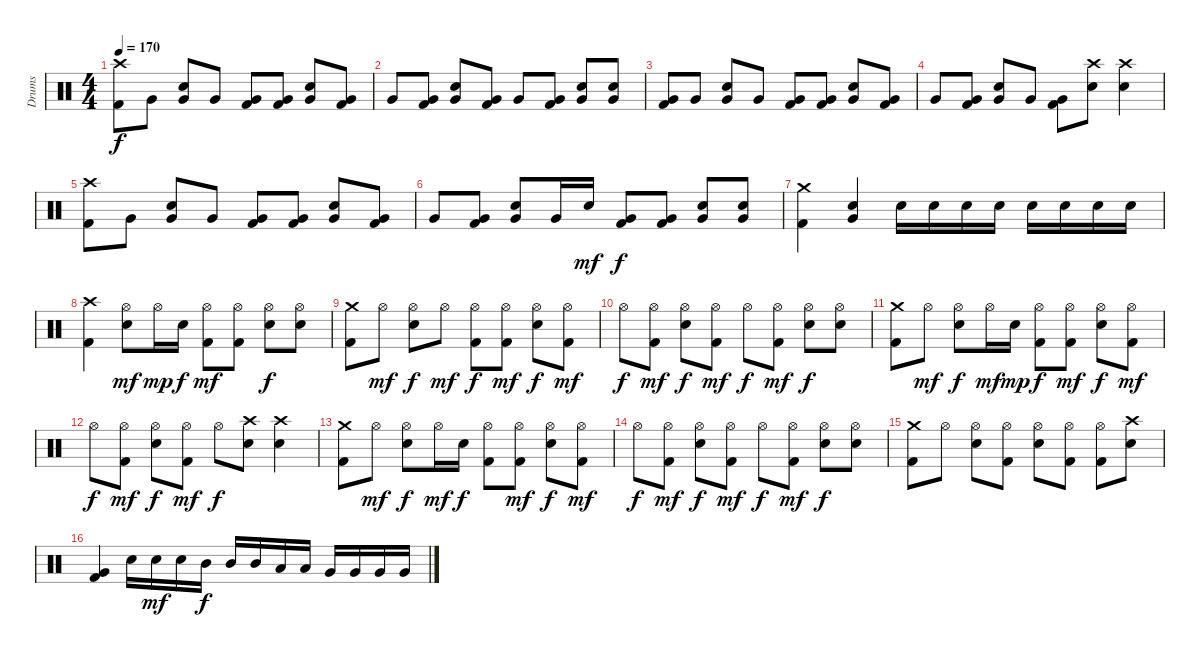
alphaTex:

\track ("Drums" "Drums") {instrument percussion}
\staff {score}
\articulation defaults
\ts (4 4)
\tempo 170
\clef neutral
\ks c
("Crash high (hit)" "Kick (hit) 2").8{dy f} "Very Low Tom (hit)".8 ("Very Low Tom (hit)" "Electric Snare (hit)").8 "Very Low Tom (hit)".8 ("Very Low Tom (hit)" "Kick (hit) 2").8 ("Very Low Tom (hit)" "Kick (hit) 2").8 ("Very Low Tom (hit)" "Electric Snare (hit)").8 ("Very Low Tom (hit)" "Kick (hit) 2").8 |
"Very Low Tom (hit)".8 ("Very Low Tom (hit)" "Kick (hit) 2").8 ("Very Low Tom (hit)" "Electric Snare (hit)").8 ("Very Low Tom (hit)" "Kick (hit) 2").8 "Very Low Tom (hit)".8 ("Very Low Tom (hit)" "Kick (hit) 2").8 ("Very Low Tom (hit)" "Electric Snare (hit)").8 ("Very Low Tom (hit)" "Electric Snare (hit)").8 |
("Very Low Tom (hit)" "Kick (hit) 2").8 "Very Low Tom (hit)".8 ("Very Low Tom (hit)" "Electric Snare (hit)").8 "Very Low Tom (hit)".8 ("Very Low Tom (hit)" "Kick (hit) 2").8 ("Very Low Tom (hit)" "Kick (hit) 2").8 ("Very Low Tom (hit)" "Electric Snare (hit)").8 ("Very Low Tom (hit)" "Kick (hit) 2").8 |
"Very Low Tom (hit)".8 ("Very Low Tom (hit)" "Kick (hit) 2").8 ("Very Low Tom (hit)" "Electric Snare (hit)").8 "Very Low Tom (hit)".8 ("Very Low Tom (hit)" "Kick (hit) 2").8 ("Crash high (hit)" "Electric Snare (hit)").8 ("Crash high (hit)" "Electric Snare (hit)").4 |
("Crash high (hit)" "Kick (hit) 2").8 "Very Low Tom (hit)".8 ("Very Low Tom (hit)" "Electric Snare (hit)").8 "Very Low Tom (hit)".8 ("Very Low Tom (hit)" "Kick (hit) 2").8 ("Very Low Tom (hit)" "Kick (hit) 2").8 ("Very Low Tom (hit)" "Electric Snare (hit)").8 ("Very Low Tom (hit)" "Kick (hit) 2").8 |
"Very Low Tom (hit)".8 ("Very Low Tom (hit)" "Kick (hit) 2").8 ("Very Low Tom (hit)" "Electric Snare (hit)").8 "Very Low Tom (hit)".16 "Electric Snare (hit)".16{dy mf} ("Very Low Tom (hit)" "Kick (hit) 2").8{dy f} ("Very Low Tom (hit)" "Kick (hit) 2").8 ("Very Low Tom (hit)" "Electric Snare (hit)").8 ("Very Low Tom (hit)" "Electric Snare (hit)").8 |
("Crash medium (hit)" "Kick (hit) 2").4 ("Very Low Tom (hit)" "Electric Snare (hit)").4 "Electric Snare (hit)".16 "Electric Snare (hit)".16 "Electric Snare (hit)".16 "Electric Snare (hit)".16 "Electric Snare (hit)".16 "Electric Snare (hit)".16 "Electric Snare (hit)".16 "Electric Snare (hit)".16 |
("Crash high (hit)" "Kick (hit) 2").4 ("Hi-Hat (open)" "Electric Snare (hit)").8{dy mf} "Hi-Hat (open)".16{dy mp} "Electric Snare (hit)".16{dy f} ("Hi-Hat (open)" "Kick (hit) 2").8{dy mf} ("Hi-Hat (open)" "Kick (hit) 2").8 ("Hi-Hat (open)" "Electric Snare (hit)").8{dy f} ("Hi-Hat (open)" "Electric Snare (hit)").8 |
("Crash medium (hit)" "Kick (hit) 2").8 "Hi-Hat (open)".8{dy mf} ("Hi-Hat (open)" "Electric Snare (hit)").8{dy f} "Hi-Hat (open)".8{dy mf} ("Hi-Hat (open)" "Kick (hit) 2").8{dy f} ("Hi-Hat (open)" "Kick (hit) 2").8{dy mf} ("Hi-Hat (open)" "Electric Snare (hit)").8{dy f} ("Hi-Hat (open)" "Kick (hit) 2").8{dy mf} |
"Hi-Hat (open)".8{dy f} ("Hi-Hat (open)" "Kick (hit) 2").8{dy mf} ("Hi-Hat (open)" "Electric Snare (hit)").8{dy f} ("Hi-Hat (open)" "Kick (hit) 2").8{dy mf} "Hi-Hat (open)".8{dy f} ("Hi-Hat (open)" "Kick (hit) 2").8{dy mf} ("Hi-Hat (open)" "Electric Snare (hit)").8{dy f} ("Hi-Hat (open)" "Electric Snare (hit)").8 |
("Crash medium (hit)" "Kick (hit) 2").8 "Hi-Hat (open)".8{dy mf} ("Hi-Hat (open)" "Electric Snare (hit)").8{dy f} "Hi-Hat (open)".16{dy mf} "Electric Snare (hit)".16{dy mp} ("Hi-Hat (open)" "Kick (hit) 2").8{dy f} ("Hi-Hat (open)" "Kick (hit) 2").8{dy mf} ("Hi-Hat (open)" "Electric Snare (hit)").8{dy f} ("Hi-Hat (open)" "Kick (hit) 2").8{dy mf} |
"Hi-Hat (open)".8{dy f} ("Hi-Hat (open)" "Kick (hit) 2").8{dy mf} ("Hi-Hat (open)" "Electric Snare (hit)").8{dy f} ("Hi-Hat (open)" "Kick (hit) 2").8{dy mf} "Hi-Hat (open)".8{dy f} ("Crash high (hit)" "Electric Snare (hit)").8 ("Crash high (hit)" "Electric Snare (hit)").4 |
("Crash medium (hit)" "Kick (hit) 2").8 "Hi-Hat (open)".8{dy mf} ("Hi-Hat (open)" "Electric Snare (hit)").8{dy f} "Hi-Hat (open)".16{dy mf} "Electric Snare (hit)".16{dy f} ("Hi-Hat (open)" "Kick (hit) 2").8 ("Hi-Hat (open)" "Kick (hit) 2").8{dy mf} ("Hi-Hat (open)" "Electric Snare (hit)").8{dy f} ("Hi-Hat (open)" "Kick (hit) 2").8{dy mf} |
"Hi-Hat (open)".8{dy f} ("Hi-Hat (open)" "Kick (hit) 2").8{dy mf} ("Hi-Hat (open)" "Electric Snare (hit)").8{dy f} ("Hi-Hat (open)" "Kick (hit) 2").8{dy mf} "Hi-Hat (open)".8{dy f} ("Hi-Hat (open)" "Kick (hit) 2").8{dy mf} ("Hi-Hat (open)" "Electric Snare (hit)").8{dy f} ("Hi-Hat (open)" "Electric Snare (hit)").8 |
("Crash medium (hit)" "Kick (hit) 2").8 "Hi-Hat (open)".8 ("Hi-Hat (open)" "Electric Snare (hit)").8 ("Hi-Hat (open)" "Kick (hit) 2").8 ("Hi-Hat (open)" "Electric Snare (hit)").8 ("Hi-Hat (open)" "Kick (hit) 2").8 ("Hi-Hat (open)" "Kick (hit) 2").8 ("Crash high (hit)" "Electric Snare (hit)").8 |
("Very Low Tom (hit)" "Kick (hit) 2").4 "Electric Snare (hit)".16 "Electric Snare (hit)".16{dy mf} "Electric Snare (hit)".16 "Mid Tom (hit)".16{dy f} "Mid Tom (hit)".16 "Mid Tom (hit)".16 "Low Tom (hit)".16 "Low Tom (hit)".16 "Very Low Tom (hit)".16 "Very Low Tom (hit)".16 "Very Low Tom (hit)".16 "Very Low Tom (hit)".16
